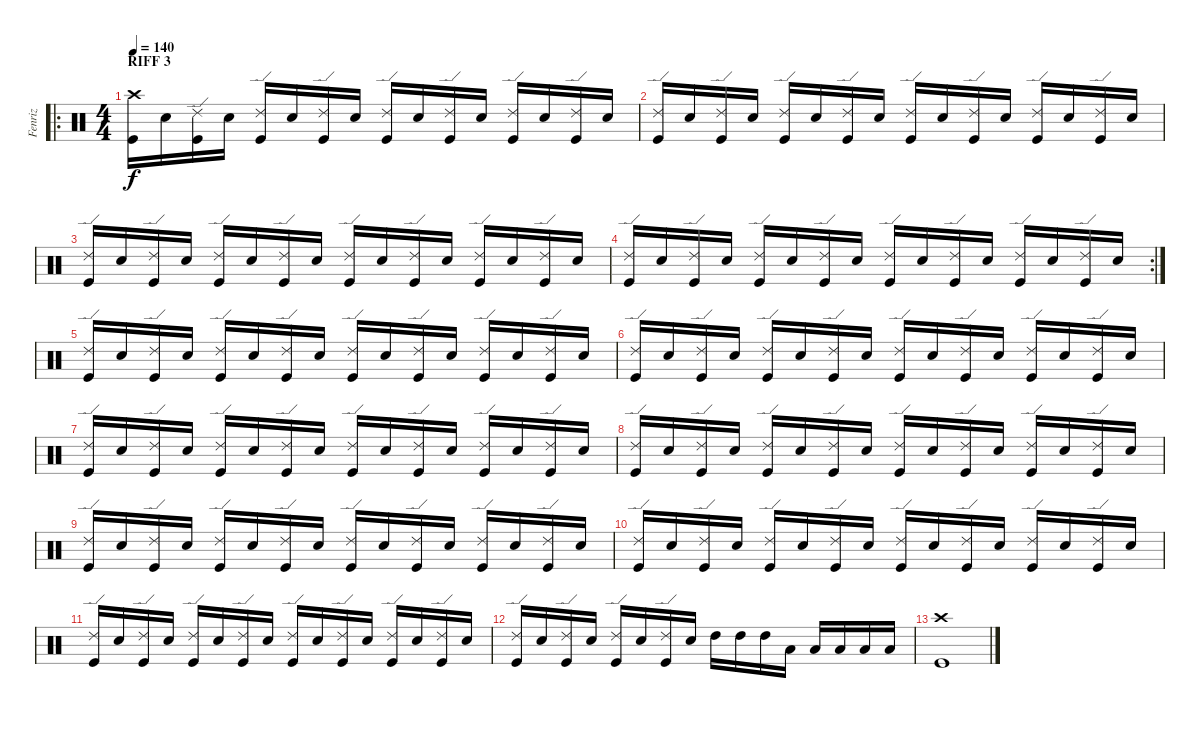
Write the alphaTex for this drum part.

\track ("Fenriz" "Fenriz") {instrument percussion}
\staff {score}
\articulation defaults
\ro
\ts (4 4)
\section ("" "RIFF 3")
\tempo 140
\clef neutral
\ks c
("Crash high (hit)" "Kick (hit)").16{dy f} "Snare (hit) 2".16 ("Ride (edge) 2" "Kick (hit)").16 "Snare (hit) 2".16 ("Ride (edge) 2" "Kick (hit)").16 "Snare (hit) 2".16 ("Ride (edge) 2" "Kick (hit)").16 "Snare (hit) 2".16 ("Ride (edge) 2" "Kick (hit)").16 "Snare (hit) 2".16 ("Ride (edge) 2" "Kick (hit)").16 "Snare (hit) 2".16 ("Ride (edge) 2" "Kick (hit)").16 "Snare (hit) 2".16 ("Ride (edge) 2" "Kick (hit)").16 "Snare (hit) 2".16 |
("Ride (edge) 2" "Kick (hit)").16 "Snare (hit) 2".16 ("Ride (edge) 2" "Kick (hit)").16 "Snare (hit) 2".16 ("Ride (edge) 2" "Kick (hit)").16 "Snare (hit) 2".16 ("Ride (edge) 2" "Kick (hit)").16 "Snare (hit) 2".16 ("Ride (edge) 2" "Kick (hit)").16 "Snare (hit) 2".16 ("Ride (edge) 2" "Kick (hit)").16 "Snare (hit) 2".16 ("Ride (edge) 2" "Kick (hit)").16 "Snare (hit) 2".16 ("Ride (edge) 2" "Kick (hit)").16 "Snare (hit) 2".16 |
("Ride (edge) 2" "Kick (hit)").16 "Snare (hit) 2".16 ("Ride (edge) 2" "Kick (hit)").16 "Snare (hit) 2".16 ("Ride (edge) 2" "Kick (hit)").16 "Snare (hit) 2".16 ("Ride (edge) 2" "Kick (hit)").16 "Snare (hit) 2".16 ("Ride (edge) 2" "Kick (hit)").16 "Snare (hit) 2".16 ("Ride (edge) 2" "Kick (hit)").16 "Snare (hit) 2".16 ("Ride (edge) 2" "Kick (hit)").16 "Snare (hit) 2".16 ("Ride (edge) 2" "Kick (hit)").16 "Snare (hit) 2".16 |
\rc 2
("Ride (edge) 2" "Kick (hit)").16 "Snare (hit) 2".16 ("Ride (edge) 2" "Kick (hit)").16 "Snare (hit) 2".16 ("Ride (edge) 2" "Kick (hit)").16 "Snare (hit) 2".16 ("Ride (edge) 2" "Kick (hit)").16 "Snare (hit) 2".16 ("Ride (edge) 2" "Kick (hit)").16 "Snare (hit) 2".16 ("Ride (edge) 2" "Kick (hit)").16 "Snare (hit) 2".16 ("Ride (edge) 2" "Kick (hit)").16 "Snare (hit) 2".16 ("Ride (edge) 2" "Kick (hit)").16 "Snare (hit) 2".16 |
("Ride (edge) 2" "Kick (hit)").16 "Snare (hit) 2".16 ("Ride (edge) 2" "Kick (hit)").16 "Snare (hit) 2".16 ("Ride (edge) 2" "Kick (hit)").16 "Snare (hit) 2".16 ("Ride (edge) 2" "Kick (hit)").16 "Snare (hit) 2".16 ("Ride (edge) 2" "Kick (hit)").16 "Snare (hit) 2".16 ("Ride (edge) 2" "Kick (hit)").16 "Snare (hit) 2".16 ("Ride (edge) 2" "Kick (hit)").16 "Snare (hit) 2".16 ("Ride (edge) 2" "Kick (hit)").16 "Snare (hit) 2".16 |
("Ride (edge) 2" "Kick (hit)").16 "Snare (hit) 2".16 ("Ride (edge) 2" "Kick (hit)").16 "Snare (hit) 2".16 ("Ride (edge) 2" "Kick (hit)").16 "Snare (hit) 2".16 ("Ride (edge) 2" "Kick (hit)").16 "Snare (hit) 2".16 ("Ride (edge) 2" "Kick (hit)").16 "Snare (hit) 2".16 ("Ride (edge) 2" "Kick (hit)").16 "Snare (hit) 2".16 ("Ride (edge) 2" "Kick (hit)").16 "Snare (hit) 2".16 ("Ride (edge) 2" "Kick (hit)").16 "Snare (hit) 2".16 |
("Ride (edge) 2" "Kick (hit)").16 "Snare (hit) 2".16 ("Ride (edge) 2" "Kick (hit)").16 "Snare (hit) 2".16 ("Ride (edge) 2" "Kick (hit)").16 "Snare (hit) 2".16 ("Ride (edge) 2" "Kick (hit)").16 "Snare (hit) 2".16 ("Ride (edge) 2" "Kick (hit)").16 "Snare (hit) 2".16 ("Ride (edge) 2" "Kick (hit)").16 "Snare (hit) 2".16 ("Ride (edge) 2" "Kick (hit)").16 "Snare (hit) 2".16 ("Ride (edge) 2" "Kick (hit)").16 "Snare (hit) 2".16 |
("Ride (edge) 2" "Kick (hit)").16 "Snare (hit) 2".16 ("Ride (edge) 2" "Kick (hit)").16 "Snare (hit) 2".16 ("Ride (edge) 2" "Kick (hit)").16 "Snare (hit) 2".16 ("Ride (edge) 2" "Kick (hit)").16 "Snare (hit) 2".16 ("Ride (edge) 2" "Kick (hit)").16 "Snare (hit) 2".16 ("Ride (edge) 2" "Kick (hit)").16 "Snare (hit) 2".16 ("Ride (edge) 2" "Kick (hit)").16 "Snare (hit) 2".16 ("Ride (edge) 2" "Kick (hit)").16 "Snare (hit) 2".16 |
("Ride (edge) 2" "Kick (hit)").16 "Snare (hit) 2".16 ("Ride (edge) 2" "Kick (hit)").16 "Snare (hit) 2".16 ("Ride (edge) 2" "Kick (hit)").16 "Snare (hit) 2".16 ("Ride (edge) 2" "Kick (hit)").16 "Snare (hit) 2".16 ("Ride (edge) 2" "Kick (hit)").16 "Snare (hit) 2".16 ("Ride (edge) 2" "Kick (hit)").16 "Snare (hit) 2".16 ("Ride (edge) 2" "Kick (hit)").16 "Snare (hit) 2".16 ("Ride (edge) 2" "Kick (hit)").16 "Snare (hit) 2".16 |
("Ride (edge) 2" "Kick (hit)").16 "Snare (hit) 2".16 ("Ride (edge) 2" "Kick (hit)").16 "Snare (hit) 2".16 ("Ride (edge) 2" "Kick (hit)").16 "Snare (hit) 2".16 ("Ride (edge) 2" "Kick (hit)").16 "Snare (hit) 2".16 ("Ride (edge) 2" "Kick (hit)").16 "Snare (hit) 2".16 ("Ride (edge) 2" "Kick (hit)").16 "Snare (hit) 2".16 ("Ride (edge) 2" "Kick (hit)").16 "Snare (hit) 2".16 ("Ride (edge) 2" "Kick (hit)").16 "Snare (hit) 2".16 |
("Ride (edge) 2" "Kick (hit)").16 "Snare (hit) 2".16 ("Ride (edge) 2" "Kick (hit)").16 "Snare (hit) 2".16 ("Ride (edge) 2" "Kick (hit)").16 "Snare (hit) 2".16 ("Ride (edge) 2" "Kick (hit)").16 "Snare (hit) 2".16 ("Ride (edge) 2" "Kick (hit)").16 "Snare (hit) 2".16 ("Ride (edge) 2" "Kick (hit)").16 "Snare (hit) 2".16 ("Ride (edge) 2" "Kick (hit)").16 "Snare (hit) 2".16 ("Ride (edge) 2" "Kick (hit)").16 "Snare (hit) 2".16 |
("Ride (edge) 2" "Kick (hit)").16 "Snare (hit) 2".16 ("Ride (edge) 2" "Kick (hit)").16 "Snare (hit) 2".16 ("Ride (edge) 2" "Kick (hit)").16 "Snare (hit) 2".16 ("Ride (edge) 2" "Kick (hit)").16 "Snare (hit) 2".16 "High Tom (hit)".16 "High Tom (hit)".16 "High Tom (hit)".16 "Low Tom (hit)".16 "Low Tom (hit)".16 "Low Tom (hit)".16 "Low Floor Tom (hit)".16 "Low Floor Tom (hit)".16 |
("Crash high (hit)" "Kick (hit)").1
